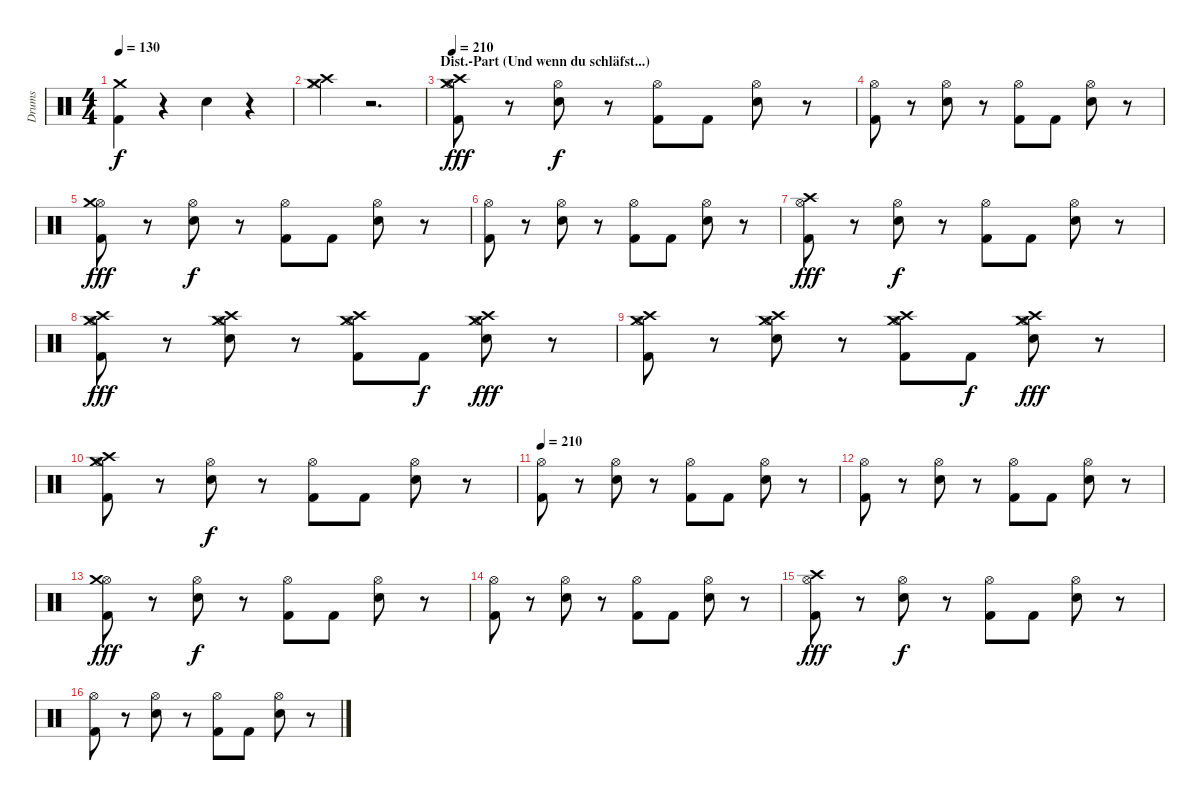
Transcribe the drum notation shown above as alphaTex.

\track ("Drums" "Drums") {instrument percussion}
\staff {score}
\articulation defaults
\ts (4 4)
\tempo 130
\clef neutral
\ks c
("Crash medium (hit)" "Kick (hit) 2").4{dy f} r.4 "Electric Snare (hit)".4 r.4 |
("Crash medium (hit)" "Crash high (hit)" "Hi-Hat (closed)").4 r.2{d} |
\section ("" "Dist.-Part (Und wenn du schläfst...)")
\tempo 210
("Crash medium (hit)" "Crash high (hit)" "Hi-Hat (open)" "Kick (hit) 2").8{dy fff} r.8 ("Hi-Hat (open)" "Electric Snare (hit)").8{dy f} r.8 ("Hi-Hat (open)" "Kick (hit) 2").8 "Kick (hit) 2".8 ("Hi-Hat (open)" "Electric Snare (hit)").8 r.8 |
("Hi-Hat (open)" "Kick (hit) 2").8 r.8 ("Hi-Hat (open)" "Electric Snare (hit)").8 r.8 ("Hi-Hat (open)" "Kick (hit) 2").8 "Kick (hit) 2".8 ("Hi-Hat (open)" "Electric Snare (hit)").8 r.8 |
("Hi-Hat (open)" "Crash medium (hit)" "Kick (hit) 2").8{dy fff} r.8 ("Hi-Hat (open)" "Electric Snare (hit)").8{dy f} r.8 ("Hi-Hat (open)" "Kick (hit) 2").8 "Kick (hit) 2".8 ("Hi-Hat (open)" "Electric Snare (hit)").8 r.8 |
("Hi-Hat (open)" "Kick (hit) 2").8 r.8 ("Hi-Hat (open)" "Electric Snare (hit)").8 r.8 ("Hi-Hat (open)" "Kick (hit) 2").8 "Kick (hit) 2".8 ("Hi-Hat (open)" "Electric Snare (hit)").8 r.8 |
("Hi-Hat (open)" "Crash high (hit)" "Kick (hit) 2").8{dy fff} r.8 ("Hi-Hat (open)" "Electric Snare (hit)").8{dy f} r.8 ("Hi-Hat (open)" "Kick (hit) 2").8 "Kick (hit) 2".8 ("Hi-Hat (open)" "Electric Snare (hit)").8 r.8 |
("Hi-Hat (open)" "Crash high (hit)" "Crash medium (hit)" "Kick (hit) 2").8{dy fff} r.8 ("Hi-Hat (open)" "Crash high (hit)" "Crash medium (hit)" "Electric Snare (hit)").8 r.8 ("Hi-Hat (open)" "Crash high (hit)" "Crash medium (hit)" "Kick (hit) 2").8 "Kick (hit) 2".8{dy f} ("Hi-Hat (open)" "Crash high (hit)" "Crash medium (hit)" "Electric Snare (hit)").8{dy fff} r.8 |
("Hi-Hat (open)" "Crash high (hit)" "Crash medium (hit)" "Kick (hit) 2").8 r.8 ("Hi-Hat (open)" "Crash high (hit)" "Crash medium (hit)" "Electric Snare (hit)").8 r.8 ("Hi-Hat (open)" "Crash high (hit)" "Crash medium (hit)" "Kick (hit) 2").8 "Kick (hit) 2".8{dy f} ("Hi-Hat (open)" "Crash high (hit)" "Crash medium (hit)" "Electric Snare (hit)").8{dy fff} r.8 |
("Hi-Hat (open)" "Crash high (hit)" "Crash medium (hit)" "Kick (hit) 2").8 r.8 ("Hi-Hat (open)" "Electric Snare (hit)").8{dy f} r.8 ("Hi-Hat (open)" "Kick (hit) 2").8 "Kick (hit) 2".8 ("Hi-Hat (open)" "Electric Snare (hit)").8 r.8 |
\tempo 210
("Hi-Hat (open)" "Kick (hit) 2").8 r.8 ("Hi-Hat (open)" "Electric Snare (hit)").8 r.8 ("Hi-Hat (open)" "Kick (hit) 2").8 "Kick (hit) 2".8 ("Hi-Hat (open)" "Electric Snare (hit)").8 r.8 |
("Hi-Hat (open)" "Kick (hit) 2").8 r.8 ("Hi-Hat (open)" "Electric Snare (hit)").8 r.8 ("Hi-Hat (open)" "Kick (hit) 2").8 "Kick (hit) 2".8 ("Hi-Hat (open)" "Electric Snare (hit)").8 r.8 |
("Hi-Hat (open)" "Crash medium (hit)" "Kick (hit) 2").8{dy fff} r.8 ("Hi-Hat (open)" "Electric Snare (hit)").8{dy f} r.8 ("Hi-Hat (open)" "Kick (hit) 2").8 "Kick (hit) 2".8 ("Hi-Hat (open)" "Electric Snare (hit)").8 r.8 |
("Hi-Hat (open)" "Kick (hit) 2").8 r.8 ("Hi-Hat (open)" "Electric Snare (hit)").8 r.8 ("Hi-Hat (open)" "Kick (hit) 2").8 "Kick (hit) 2".8 ("Hi-Hat (open)" "Electric Snare (hit)").8 r.8 |
("Hi-Hat (open)" "Crash high (hit)" "Kick (hit) 2").8{dy fff} r.8 ("Hi-Hat (open)" "Electric Snare (hit)").8{dy f} r.8 ("Hi-Hat (open)" "Kick (hit) 2").8 "Kick (hit) 2".8 ("Hi-Hat (open)" "Electric Snare (hit)").8 r.8 |
("Hi-Hat (open)" "Kick (hit) 2").8 r.8 ("Hi-Hat (open)" "Electric Snare (hit)").8 r.8 ("Hi-Hat (open)" "Kick (hit) 2").8 "Kick (hit) 2".8 ("Hi-Hat (open)" "Electric Snare (hit)").8 r.8
